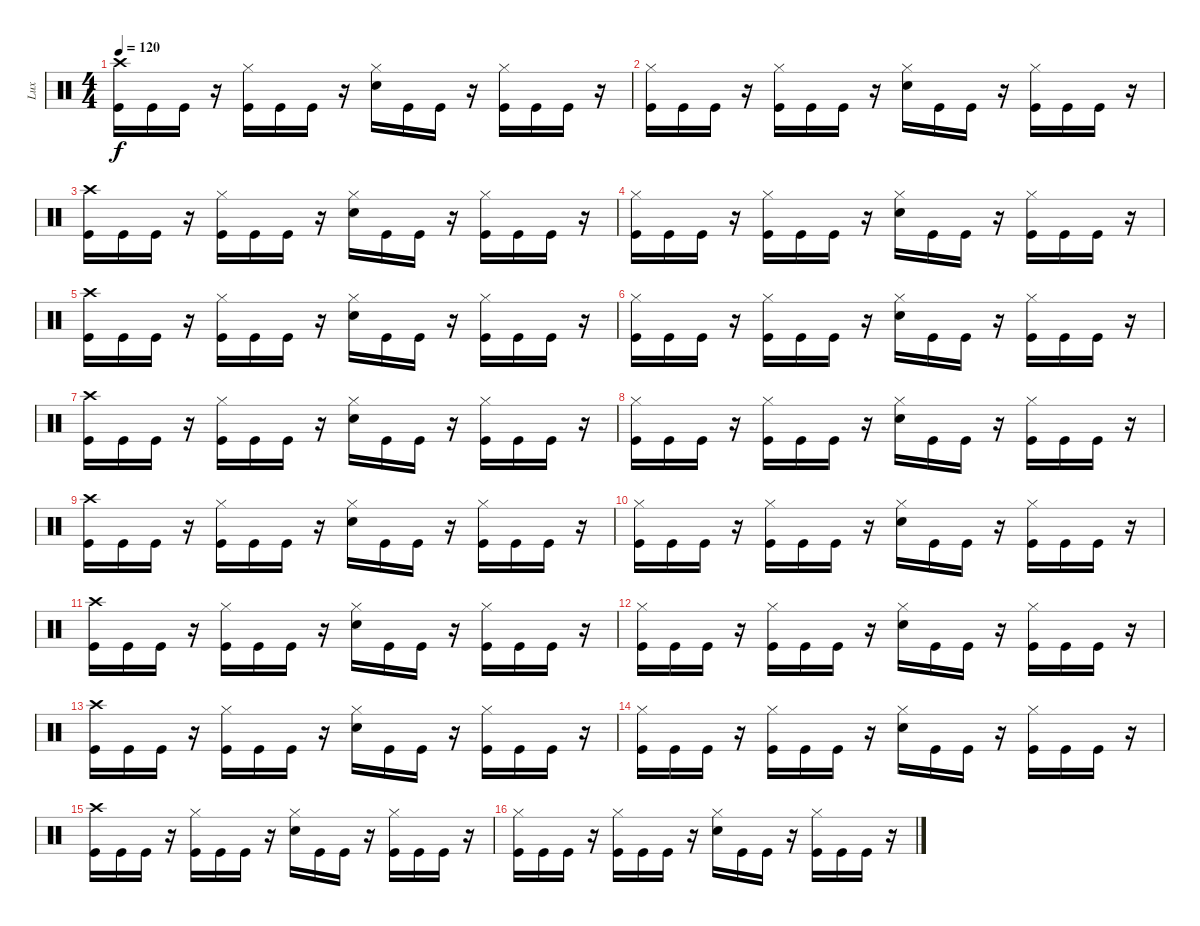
\track ("Lux" "Lux") {solo instrument percussion}
\staff {score}
\articulation defaults
\ts (4 4)
\tempo 120
\clef neutral
\ks c
("Crash high (hit)" "Kick (hit)").16{dy f} "Kick (hit)".16 "Kick (hit)".16 r.16 ("Hi-Hat (closed)" "Kick (hit)").16 "Kick (hit)".16 "Kick (hit)".16 r.16 ("Hi-Hat (closed)" "Snare (hit) 2").16 "Kick (hit)".16 "Kick (hit)".16 r.16 ("Hi-Hat (closed)" "Kick (hit)").16 "Kick (hit)".16 "Kick (hit)".16 r.16 |
("Hi-Hat (closed)" "Kick (hit)").16 "Kick (hit)".16 "Kick (hit)".16 r.16 ("Hi-Hat (closed)" "Kick (hit)").16 "Kick (hit)".16 "Kick (hit)".16 r.16 ("Hi-Hat (closed)" "Snare (hit) 2").16 "Kick (hit)".16 "Kick (hit)".16 r.16 ("Hi-Hat (closed)" "Kick (hit)").16 "Kick (hit)".16 "Kick (hit)".16 r.16 |
("Crash high (hit)" "Kick (hit)").16 "Kick (hit)".16 "Kick (hit)".16 r.16 ("Hi-Hat (closed)" "Kick (hit)").16 "Kick (hit)".16 "Kick (hit)".16 r.16 ("Hi-Hat (closed)" "Snare (hit) 2").16 "Kick (hit)".16 "Kick (hit)".16 r.16 ("Hi-Hat (closed)" "Kick (hit)").16 "Kick (hit)".16 "Kick (hit)".16 r.16 |
("Hi-Hat (closed)" "Kick (hit)").16 "Kick (hit)".16 "Kick (hit)".16 r.16 ("Hi-Hat (closed)" "Kick (hit)").16 "Kick (hit)".16 "Kick (hit)".16 r.16 ("Hi-Hat (closed)" "Snare (hit) 2").16 "Kick (hit)".16 "Kick (hit)".16 r.16 ("Hi-Hat (closed)" "Kick (hit)").16 "Kick (hit)".16 "Kick (hit)".16 r.16 |
("Crash high (hit)" "Kick (hit)").16 "Kick (hit)".16 "Kick (hit)".16 r.16 ("Hi-Hat (closed)" "Kick (hit)").16 "Kick (hit)".16 "Kick (hit)".16 r.16 ("Hi-Hat (closed)" "Snare (hit) 2").16 "Kick (hit)".16 "Kick (hit)".16 r.16 ("Hi-Hat (closed)" "Kick (hit)").16 "Kick (hit)".16 "Kick (hit)".16 r.16 |
("Hi-Hat (closed)" "Kick (hit)").16 "Kick (hit)".16 "Kick (hit)".16 r.16 ("Hi-Hat (closed)" "Kick (hit)").16 "Kick (hit)".16 "Kick (hit)".16 r.16 ("Hi-Hat (closed)" "Snare (hit) 2").16 "Kick (hit)".16 "Kick (hit)".16 r.16 ("Hi-Hat (closed)" "Kick (hit)").16 "Kick (hit)".16 "Kick (hit)".16 r.16 |
("Crash high (hit)" "Kick (hit)").16 "Kick (hit)".16 "Kick (hit)".16 r.16 ("Hi-Hat (closed)" "Kick (hit)").16 "Kick (hit)".16 "Kick (hit)".16 r.16 ("Hi-Hat (closed)" "Snare (hit) 2").16 "Kick (hit)".16 "Kick (hit)".16 r.16 ("Hi-Hat (closed)" "Kick (hit)").16 "Kick (hit)".16 "Kick (hit)".16 r.16 |
("Hi-Hat (closed)" "Kick (hit)").16 "Kick (hit)".16 "Kick (hit)".16 r.16 ("Hi-Hat (closed)" "Kick (hit)").16 "Kick (hit)".16 "Kick (hit)".16 r.16 ("Hi-Hat (closed)" "Snare (hit) 2").16 "Kick (hit)".16 "Kick (hit)".16 r.16 ("Hi-Hat (closed)" "Kick (hit)").16 "Kick (hit)".16 "Kick (hit)".16 r.16 |
("Crash high (hit)" "Kick (hit)").16 "Kick (hit)".16 "Kick (hit)".16 r.16 ("Hi-Hat (closed)" "Kick (hit)").16 "Kick (hit)".16 "Kick (hit)".16 r.16 ("Hi-Hat (closed)" "Snare (hit) 2").16 "Kick (hit)".16 "Kick (hit)".16 r.16 ("Hi-Hat (closed)" "Kick (hit)").16 "Kick (hit)".16 "Kick (hit)".16 r.16 |
("Hi-Hat (closed)" "Kick (hit)").16 "Kick (hit)".16 "Kick (hit)".16 r.16 ("Hi-Hat (closed)" "Kick (hit)").16 "Kick (hit)".16 "Kick (hit)".16 r.16 ("Hi-Hat (closed)" "Snare (hit) 2").16 "Kick (hit)".16 "Kick (hit)".16 r.16 ("Hi-Hat (closed)" "Kick (hit)").16 "Kick (hit)".16 "Kick (hit)".16 r.16 |
("Crash high (hit)" "Kick (hit)").16 "Kick (hit)".16 "Kick (hit)".16 r.16 ("Hi-Hat (closed)" "Kick (hit)").16 "Kick (hit)".16 "Kick (hit)".16 r.16 ("Hi-Hat (closed)" "Snare (hit) 2").16 "Kick (hit)".16 "Kick (hit)".16 r.16 ("Hi-Hat (closed)" "Kick (hit)").16 "Kick (hit)".16 "Kick (hit)".16 r.16 |
("Hi-Hat (closed)" "Kick (hit)").16 "Kick (hit)".16 "Kick (hit)".16 r.16 ("Hi-Hat (closed)" "Kick (hit)").16 "Kick (hit)".16 "Kick (hit)".16 r.16 ("Hi-Hat (closed)" "Snare (hit) 2").16 "Kick (hit)".16 "Kick (hit)".16 r.16 ("Hi-Hat (closed)" "Kick (hit)").16 "Kick (hit)".16 "Kick (hit)".16 r.16 |
("Crash high (hit)" "Kick (hit)").16 "Kick (hit)".16 "Kick (hit)".16 r.16 ("Hi-Hat (closed)" "Kick (hit)").16 "Kick (hit)".16 "Kick (hit)".16 r.16 ("Hi-Hat (closed)" "Snare (hit) 2").16 "Kick (hit)".16 "Kick (hit)".16 r.16 ("Hi-Hat (closed)" "Kick (hit)").16 "Kick (hit)".16 "Kick (hit)".16 r.16 |
("Hi-Hat (closed)" "Kick (hit)").16 "Kick (hit)".16 "Kick (hit)".16 r.16 ("Hi-Hat (closed)" "Kick (hit)").16 "Kick (hit)".16 "Kick (hit)".16 r.16 ("Hi-Hat (closed)" "Snare (hit) 2").16 "Kick (hit)".16 "Kick (hit)".16 r.16 ("Hi-Hat (closed)" "Kick (hit)").16 "Kick (hit)".16 "Kick (hit)".16 r.16 |
("Crash high (hit)" "Kick (hit)").16 "Kick (hit)".16 "Kick (hit)".16 r.16 ("Hi-Hat (closed)" "Kick (hit)").16 "Kick (hit)".16 "Kick (hit)".16 r.16 ("Hi-Hat (closed)" "Snare (hit) 2").16 "Kick (hit)".16 "Kick (hit)".16 r.16 ("Hi-Hat (closed)" "Kick (hit)").16 "Kick (hit)".16 "Kick (hit)".16 r.16 |
("Hi-Hat (closed)" "Kick (hit)").16 "Kick (hit)".16 "Kick (hit)".16 r.16 ("Hi-Hat (closed)" "Kick (hit)").16 "Kick (hit)".16 "Kick (hit)".16 r.16 ("Hi-Hat (closed)" "Snare (hit) 2").16 "Kick (hit)".16 "Kick (hit)".16 r.16 ("Hi-Hat (closed)" "Kick (hit)").16 "Kick (hit)".16 "Kick (hit)".16 r.16
